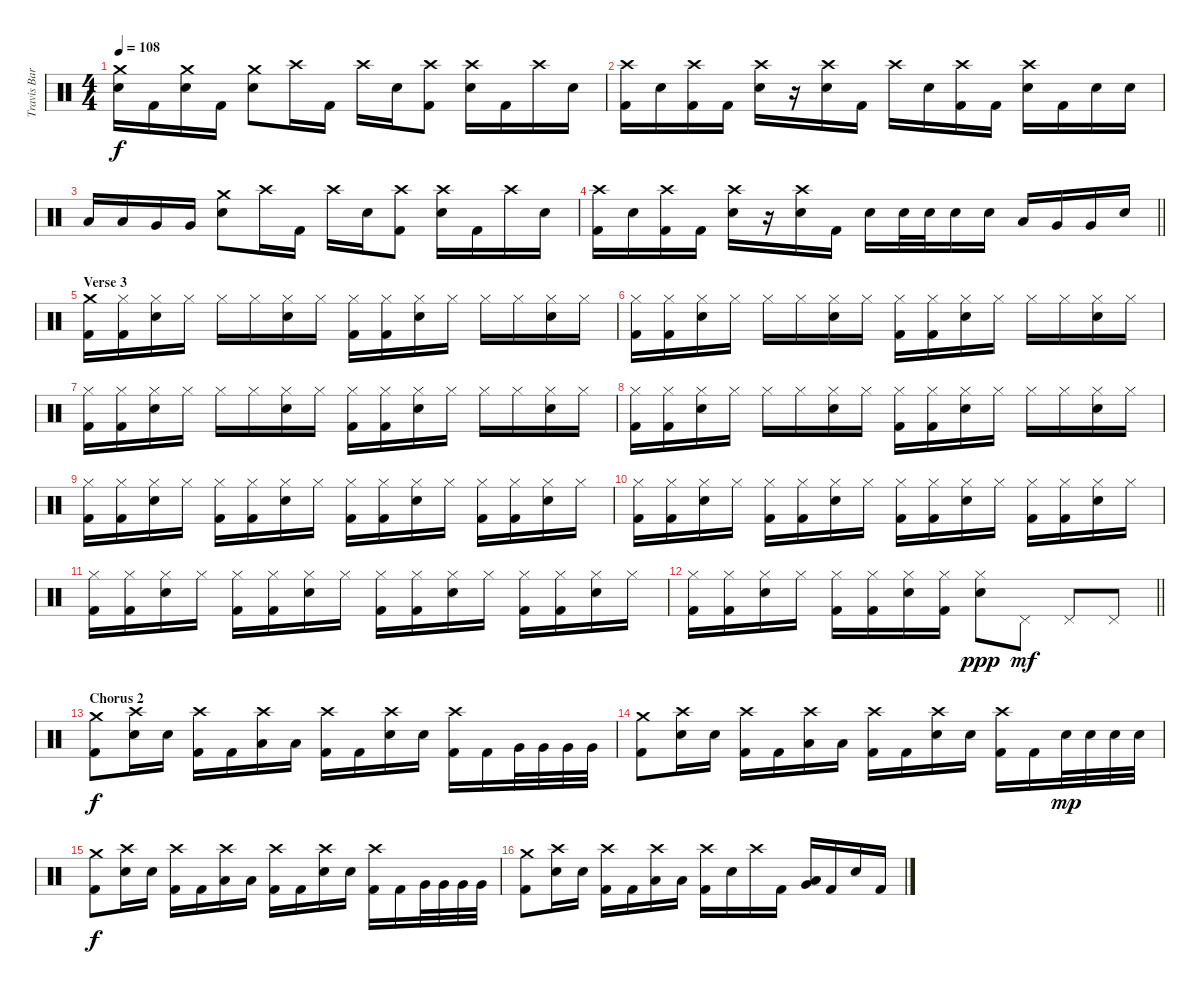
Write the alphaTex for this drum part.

\track ("Travis Barker" "Travis Bar") {instrument percussion}
\staff {score}
\articulation defaults
\ts (4 4)
\section ("" "")
\tempo 108
\clef neutral
\ks c
("Crash medium (hit)" "Electric Snare (hit)").16{dy f} "Kick (hit) 2".16 ("Crash medium (hit)" "Electric Snare (hit)").16 "Kick (hit) 2".16 ("Crash medium (hit)" "Electric Snare (hit)").8 "Crash high (hit)".16 "Kick (hit) 2".16 "Crash high (hit)".16 "Electric Snare (hit)".16 ("Crash high (hit)" "Kick (hit) 2").8 ("Crash high (hit)" "Electric Snare (hit)").16 "Kick (hit) 2".16 "Crash high (hit)".16 "Electric Snare (hit)".16 |
("Crash high (hit)" "Kick (hit) 2").16 "Electric Snare (hit)".16 ("Crash high (hit)" "Kick (hit) 2").16 "Kick (hit) 2".16 ("Crash high (hit)" "Electric Snare (hit)").16 r.16 ("Crash high (hit)" "Electric Snare (hit)").16 "Kick (hit) 2".16 "Crash high (hit)".16 "Electric Snare (hit)".16 ("Crash high (hit)" "Kick (hit) 2").16 "Kick (hit) 2".16 ("Crash high (hit)" "Electric Snare (hit)").16 "Kick (hit) 2".16 "Electric Snare (hit)".16 "Electric Snare (hit)".16 |
"Low Tom (hit)".16 "Low Tom (hit)".16 "Very Low Tom (hit)".16 "Very Low Tom (hit)".16 ("Crash medium (hit)" "Electric Snare (hit)").8 "Crash high (hit)".16 "Kick (hit) 2".16 "Crash high (hit)".16 "Electric Snare (hit)".16 ("Crash high (hit)" "Kick (hit) 2").8 ("Crash high (hit)" "Electric Snare (hit)").16 "Kick (hit) 2".16 "Crash high (hit)".16 "Electric Snare (hit)".16 |
\barLineRight lightlight
("Crash high (hit)" "Kick (hit) 2").16 "Electric Snare (hit)".16 ("Crash high (hit)" "Kick (hit) 2").16 "Kick (hit) 2".16 ("Crash high (hit)" "Electric Snare (hit)").16 r.16 ("Crash high (hit)" "Electric Snare (hit)").16 "Kick (hit) 2".16 "Electric Snare (hit)".16 "Electric Snare (hit)".32 "Electric Snare (hit)".32 "Electric Snare (hit)".16 "Electric Snare (hit)".16 "Low Tom (hit)".16 "Very Low Tom (hit)".16 "Very Low Tom (hit)".16 "Electric Snare (hit)".16 |
\section ("" "Verse 3")
("Crash medium (hit)" "Kick (hit) 2").16 ("Hi-Hat (closed)" "Kick (hit) 2").16 ("Hi-Hat (closed)" "Electric Snare (hit)").16 "Hi-Hat (closed)".16 "Hi-Hat (closed)".16 "Hi-Hat (closed)".16 ("Hi-Hat (closed)" "Electric Snare (hit)").16 "Hi-Hat (closed)".16 ("Hi-Hat (closed)" "Kick (hit) 2").16 ("Hi-Hat (closed)" "Kick (hit) 2").16 ("Hi-Hat (closed)" "Electric Snare (hit)").16 "Hi-Hat (closed)".16 "Hi-Hat (closed)".16 "Hi-Hat (closed)".16 ("Hi-Hat (closed)" "Electric Snare (hit)").16 "Hi-Hat (closed)".16 |
("Hi-Hat (closed)" "Kick (hit) 2").16 ("Hi-Hat (closed)" "Kick (hit) 2").16 ("Hi-Hat (closed)" "Electric Snare (hit)").16 "Hi-Hat (closed)".16 "Hi-Hat (closed)".16 "Hi-Hat (closed)".16 ("Hi-Hat (closed)" "Electric Snare (hit)").16 "Hi-Hat (closed)".16 ("Hi-Hat (closed)" "Kick (hit) 2").16 ("Hi-Hat (closed)" "Kick (hit) 2").16 ("Hi-Hat (closed)" "Electric Snare (hit)").16 "Hi-Hat (closed)".16 "Hi-Hat (closed)".16 "Hi-Hat (closed)".16 ("Hi-Hat (closed)" "Electric Snare (hit)").16 "Hi-Hat (closed)".16 |
("Hi-Hat (closed)" "Kick (hit) 2").16 ("Hi-Hat (closed)" "Kick (hit) 2").16 ("Hi-Hat (closed)" "Electric Snare (hit)").16 "Hi-Hat (closed)".16 "Hi-Hat (closed)".16 "Hi-Hat (closed)".16 ("Hi-Hat (closed)" "Electric Snare (hit)").16 "Hi-Hat (closed)".16 ("Hi-Hat (closed)" "Kick (hit) 2").16 ("Hi-Hat (closed)" "Kick (hit) 2").16 ("Hi-Hat (closed)" "Electric Snare (hit)").16 "Hi-Hat (closed)".16 "Hi-Hat (closed)".16 "Hi-Hat (closed)".16 ("Hi-Hat (closed)" "Electric Snare (hit)").16 "Hi-Hat (closed)".16 |
("Hi-Hat (closed)" "Kick (hit) 2").16 ("Hi-Hat (closed)" "Kick (hit) 2").16 ("Hi-Hat (closed)" "Electric Snare (hit)").16 "Hi-Hat (closed)".16 "Hi-Hat (closed)".16 "Hi-Hat (closed)".16 ("Hi-Hat (closed)" "Electric Snare (hit)").16 "Hi-Hat (closed)".16 ("Hi-Hat (closed)" "Kick (hit) 2").16 ("Hi-Hat (closed)" "Kick (hit) 2").16 ("Hi-Hat (closed)" "Electric Snare (hit)").16 "Hi-Hat (closed)".16 "Hi-Hat (closed)".16 "Hi-Hat (closed)".16 ("Hi-Hat (closed)" "Electric Snare (hit)").16 "Hi-Hat (closed)".16 |
("Hi-Hat (closed)" "Kick (hit) 2").16 ("Hi-Hat (closed)" "Kick (hit) 2").16 ("Hi-Hat (closed)" "Electric Snare (hit)").16 "Hi-Hat (closed)".16 ("Hi-Hat (closed)" "Kick (hit) 2").16 ("Hi-Hat (closed)" "Kick (hit) 2").16 ("Hi-Hat (closed)" "Electric Snare (hit)").16 "Hi-Hat (closed)".16 ("Hi-Hat (closed)" "Kick (hit) 2").16 ("Hi-Hat (closed)" "Kick (hit) 2").16 ("Hi-Hat (closed)" "Electric Snare (hit)").16 "Hi-Hat (closed)".16 ("Hi-Hat (closed)" "Kick (hit) 2").16 ("Hi-Hat (closed)" "Kick (hit) 2").16 ("Hi-Hat (closed)" "Electric Snare (hit)").16 "Hi-Hat (closed)".16 |
("Hi-Hat (closed)" "Kick (hit) 2").16 ("Hi-Hat (closed)" "Kick (hit) 2").16 ("Hi-Hat (closed)" "Electric Snare (hit)").16 "Hi-Hat (closed)".16 ("Hi-Hat (closed)" "Kick (hit) 2").16 ("Hi-Hat (closed)" "Kick (hit) 2").16 ("Hi-Hat (closed)" "Electric Snare (hit)").16 "Hi-Hat (closed)".16 ("Hi-Hat (closed)" "Kick (hit) 2").16 ("Hi-Hat (closed)" "Kick (hit) 2").16 ("Hi-Hat (closed)" "Electric Snare (hit)").16 "Hi-Hat (closed)".16 ("Hi-Hat (closed)" "Kick (hit) 2").16 ("Hi-Hat (closed)" "Kick (hit) 2").16 ("Hi-Hat (closed)" "Electric Snare (hit)").16 "Hi-Hat (closed)".16 |
("Hi-Hat (closed)" "Kick (hit) 2").16 ("Hi-Hat (closed)" "Kick (hit) 2").16 ("Hi-Hat (closed)" "Electric Snare (hit)").16 "Hi-Hat (closed)".16 ("Hi-Hat (closed)" "Kick (hit) 2").16 ("Hi-Hat (closed)" "Kick (hit) 2").16 ("Hi-Hat (closed)" "Electric Snare (hit)").16 "Hi-Hat (closed)".16 ("Hi-Hat (closed)" "Kick (hit) 2").16 ("Hi-Hat (closed)" "Kick (hit) 2").16 ("Hi-Hat (closed)" "Electric Snare (hit)").16 "Hi-Hat (closed)".16 ("Hi-Hat (closed)" "Kick (hit) 2").16 ("Hi-Hat (closed)" "Kick (hit) 2").16 ("Hi-Hat (closed)" "Electric Snare (hit)").16 "Hi-Hat (closed)".16 |
\barLineRight lightlight
("Hi-Hat (closed)" "Kick (hit) 2").16 ("Hi-Hat (closed)" "Kick (hit) 2").16 ("Hi-Hat (closed)" "Electric Snare (hit)").16 "Hi-Hat (closed)".16 ("Hi-Hat (closed)" "Kick (hit) 2").16 ("Hi-Hat (closed)" "Kick (hit) 2").16 ("Hi-Hat (closed)" "Electric Snare (hit)").16 ("Hi-Hat (closed)" "Kick (hit) 2").16 ("Hi-Hat (closed)" "Electric Snare (hit)").8{dy ppp} "Pedal Hi-Hat (hit)".8{dy mf} "Pedal Hi-Hat (hit)".8 "Pedal Hi-Hat (hit)".8 |
\section ("" "Chorus 2")
("Crash medium (hit)" "Kick (hit) 2").8{dy f} ("Crash high (hit)" "Electric Snare (hit)").16 "Electric Snare (hit)".16 ("Crash high (hit)" "Kick (hit) 2").16 "Kick (hit) 2".16 ("Crash high (hit)" "Low Tom (hit)").16 "Low Tom (hit)".16 ("Crash high (hit)" "Kick (hit) 2").16 "Kick (hit) 2".16 ("Crash high (hit)" "Electric Snare (hit)").16 "Electric Snare (hit)".16 ("Crash high (hit)" "Kick (hit) 2").16 "Kick (hit) 2".16 "Very Low Tom (hit)".32 "Very Low Tom (hit)".32 "Very Low Tom (hit)".32 "Very Low Tom (hit)".32 |
("Crash medium (hit)" "Kick (hit) 2").8 ("Crash high (hit)" "Electric Snare (hit)").16 "Electric Snare (hit)".16 ("Crash high (hit)" "Kick (hit) 2").16 "Kick (hit) 2".16 ("Crash high (hit)" "Low Tom (hit)").16 "Low Tom (hit)".16 ("Crash high (hit)" "Kick (hit) 2").16 "Kick (hit) 2".16 ("Crash high (hit)" "Electric Snare (hit)").16 "Electric Snare (hit)".16 ("Crash high (hit)" "Kick (hit) 2").16 "Kick (hit) 2".16 "Electric Snare (hit)".32{dy mp} "Electric Snare (hit)".32 "Electric Snare (hit)".32 "Electric Snare (hit)".32 |
("Crash medium (hit)" "Kick (hit) 2").8{dy f} ("Crash high (hit)" "Electric Snare (hit)").16 "Electric Snare (hit)".16 ("Crash high (hit)" "Kick (hit) 2").16 "Kick (hit) 2".16 ("Crash high (hit)" "Low Tom (hit)").16 "Low Tom (hit)".16 ("Crash high (hit)" "Kick (hit) 2").16 "Kick (hit) 2".16 ("Crash high (hit)" "Electric Snare (hit)").16 "Electric Snare (hit)".16 ("Crash high (hit)" "Kick (hit) 2").16 "Kick (hit) 2".16 "Very Low Tom (hit)".32 "Very Low Tom (hit)".32 "Very Low Tom (hit)".32 "Very Low Tom (hit)".32 |
("Crash medium (hit)" "Kick (hit) 2").8 ("Crash high (hit)" "Electric Snare (hit)").16 "Electric Snare (hit)".16 ("Crash high (hit)" "Kick (hit) 2").16 "Kick (hit) 2".16 ("Crash high (hit)" "Low Tom (hit)").16 "Low Tom (hit)".16 ("Crash high (hit)" "Kick (hit) 2").16 "Electric Snare (hit)".16 "Crash high (hit)".16 "Kick (hit) 2".16 ("Low Tom (hit)" "Very Low Tom (hit)").16 "Kick (hit) 2".16 "Electric Snare (hit)".16 "Kick (hit) 2".16
